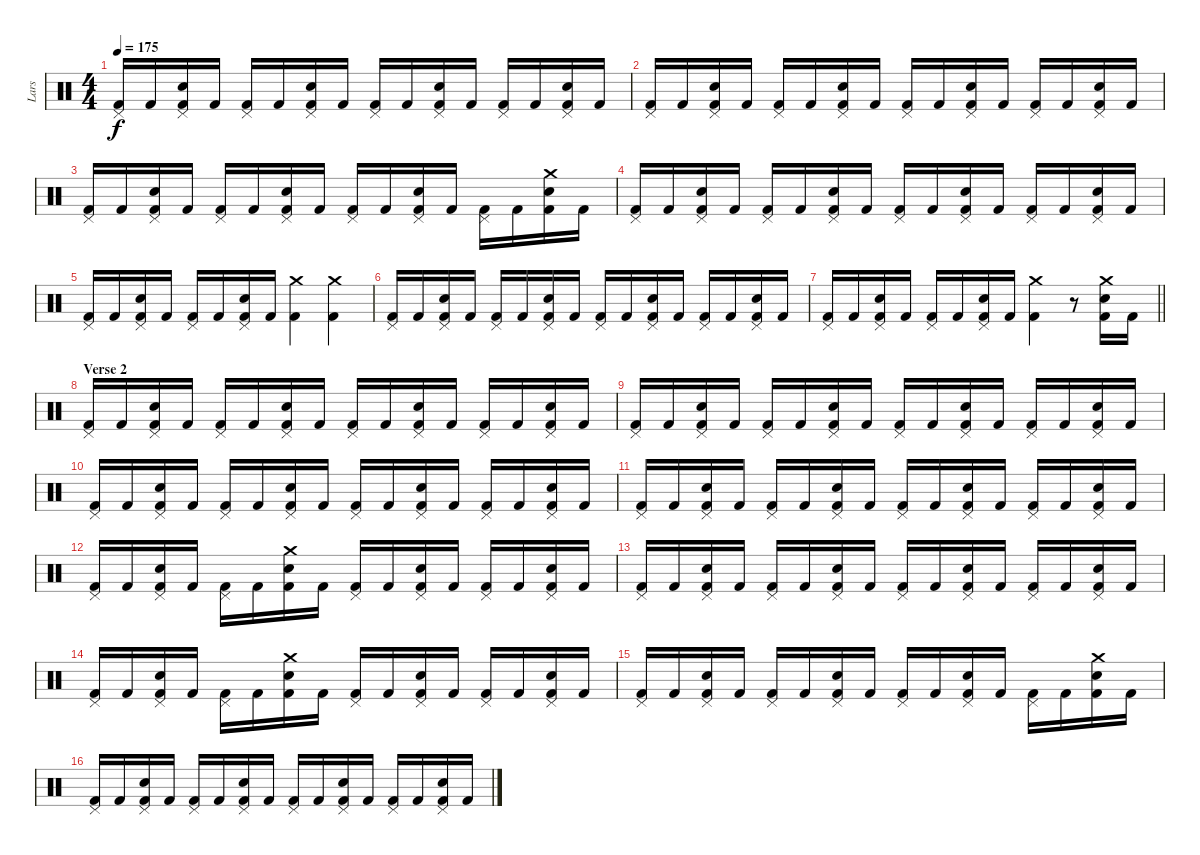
\track ("Lars" "Lars") {instrument percussion}
\staff {score}
\articulation defaults
\ts (4 4)
\tempo 175
\clef neutral
\ks c
("Pedal Hi-Hat (hit)" "Kick (hit) 2").16{dy f} "Kick (hit) 2".16 ("Pedal Hi-Hat (hit)" "Electric Snare (hit)" "Kick (hit) 2").16 "Kick (hit) 2".16 ("Pedal Hi-Hat (hit)" "Kick (hit) 2").16 "Kick (hit) 2".16 ("Pedal Hi-Hat (hit)" "Electric Snare (hit)" "Kick (hit) 2").16 "Kick (hit) 2".16 ("Pedal Hi-Hat (hit)" "Kick (hit) 2").16 "Kick (hit) 2".16 ("Pedal Hi-Hat (hit)" "Electric Snare (hit)" "Kick (hit) 2").16 "Kick (hit) 2".16 ("Pedal Hi-Hat (hit)" "Kick (hit) 2").16 "Kick (hit) 2".16 ("Pedal Hi-Hat (hit)" "Electric Snare (hit)" "Kick (hit) 2").16 "Kick (hit) 2".16 |
("Pedal Hi-Hat (hit)" "Kick (hit) 2").16 "Kick (hit) 2".16 ("Pedal Hi-Hat (hit)" "Electric Snare (hit)" "Kick (hit) 2").16 "Kick (hit) 2".16 ("Pedal Hi-Hat (hit)" "Kick (hit) 2").16 "Kick (hit) 2".16 ("Pedal Hi-Hat (hit)" "Electric Snare (hit)" "Kick (hit) 2").16 "Kick (hit) 2".16 ("Pedal Hi-Hat (hit)" "Kick (hit) 2").16 "Kick (hit) 2".16 ("Pedal Hi-Hat (hit)" "Electric Snare (hit)" "Kick (hit) 2").16 "Kick (hit) 2".16 ("Pedal Hi-Hat (hit)" "Kick (hit) 2").16 "Kick (hit) 2".16 ("Pedal Hi-Hat (hit)" "Electric Snare (hit)" "Kick (hit) 2").16 "Kick (hit) 2".16 |
("Pedal Hi-Hat (hit)" "Kick (hit) 2").16 "Kick (hit) 2".16 ("Pedal Hi-Hat (hit)" "Electric Snare (hit)" "Kick (hit) 2").16 "Kick (hit) 2".16 ("Pedal Hi-Hat (hit)" "Kick (hit) 2").16 "Kick (hit) 2".16 ("Pedal Hi-Hat (hit)" "Electric Snare (hit)" "Kick (hit) 2").16 "Kick (hit) 2".16 ("Pedal Hi-Hat (hit)" "Kick (hit) 2").16 "Kick (hit) 2".16 ("Pedal Hi-Hat (hit)" "Electric Snare (hit)" "Kick (hit) 2").16 "Kick (hit) 2".16 ("Pedal Hi-Hat (hit)" "Kick (hit) 2").16 "Kick (hit) 2".16 ("Crash medium (hit)" "Electric Snare (hit)" "Kick (hit) 2").16 "Kick (hit) 2".16 |
("Pedal Hi-Hat (hit)" "Kick (hit) 2").16 "Kick (hit) 2".16 ("Pedal Hi-Hat (hit)" "Electric Snare (hit)" "Kick (hit) 2").16 "Kick (hit) 2".16 ("Pedal Hi-Hat (hit)" "Kick (hit) 2").16 "Kick (hit) 2".16 ("Pedal Hi-Hat (hit)" "Electric Snare (hit)" "Kick (hit) 2").16 "Kick (hit) 2".16 ("Pedal Hi-Hat (hit)" "Kick (hit) 2").16 "Kick (hit) 2".16 ("Pedal Hi-Hat (hit)" "Electric Snare (hit)" "Kick (hit) 2").16 "Kick (hit) 2".16 ("Pedal Hi-Hat (hit)" "Kick (hit) 2").16 "Kick (hit) 2".16 ("Pedal Hi-Hat (hit)" "Electric Snare (hit)" "Kick (hit) 2").16 "Kick (hit) 2".16 |
("Pedal Hi-Hat (hit)" "Kick (hit) 2").16 "Kick (hit) 2".16 ("Pedal Hi-Hat (hit)" "Electric Snare (hit)" "Kick (hit) 2").16 "Kick (hit) 2".16 ("Pedal Hi-Hat (hit)" "Kick (hit) 2").16 "Kick (hit) 2".16 ("Pedal Hi-Hat (hit)" "Electric Snare (hit)" "Kick (hit) 2").16 "Kick (hit) 2".16 ("Crash medium (hit)" "Kick (hit) 2").4 ("Crash medium (hit)" "Kick (hit) 2").4 |
("Pedal Hi-Hat (hit)" "Kick (hit) 2").16 "Kick (hit) 2".16 ("Pedal Hi-Hat (hit)" "Electric Snare (hit)" "Kick (hit) 2").16 "Kick (hit) 2".16 ("Pedal Hi-Hat (hit)" "Kick (hit) 2").16 "Kick (hit) 2".16 ("Pedal Hi-Hat (hit)" "Electric Snare (hit)" "Kick (hit) 2").16 "Kick (hit) 2".16 ("Pedal Hi-Hat (hit)" "Kick (hit) 2").16 "Kick (hit) 2".16 ("Pedal Hi-Hat (hit)" "Electric Snare (hit)" "Kick (hit) 2").16 "Kick (hit) 2".16 ("Pedal Hi-Hat (hit)" "Kick (hit) 2").16 "Kick (hit) 2".16 ("Pedal Hi-Hat (hit)" "Electric Snare (hit)" "Kick (hit) 2").16 "Kick (hit) 2".16 |
\barLineRight lightlight
("Pedal Hi-Hat (hit)" "Kick (hit) 2").16 "Kick (hit) 2".16 ("Pedal Hi-Hat (hit)" "Electric Snare (hit)" "Kick (hit) 2").16 "Kick (hit) 2".16 ("Pedal Hi-Hat (hit)" "Kick (hit) 2").16 "Kick (hit) 2".16 ("Pedal Hi-Hat (hit)" "Electric Snare (hit)" "Kick (hit) 2").16 "Kick (hit) 2".16 ("Crash medium (hit)" "Kick (hit) 2").4 r.8 ("Crash medium (hit)" "Electric Snare (hit)" "Kick (hit) 2").16 "Kick (hit) 2".16 |
\section ("" "Verse 2")
("Pedal Hi-Hat (hit)" "Kick (hit) 2").16 "Kick (hit) 2".16 ("Pedal Hi-Hat (hit)" "Electric Snare (hit)" "Kick (hit) 2").16 "Kick (hit) 2".16 ("Pedal Hi-Hat (hit)" "Kick (hit) 2").16 "Kick (hit) 2".16 ("Pedal Hi-Hat (hit)" "Electric Snare (hit)" "Kick (hit) 2").16 "Kick (hit) 2".16 ("Pedal Hi-Hat (hit)" "Kick (hit) 2").16 "Kick (hit) 2".16 ("Pedal Hi-Hat (hit)" "Electric Snare (hit)" "Kick (hit) 2").16 "Kick (hit) 2".16 ("Pedal Hi-Hat (hit)" "Kick (hit) 2").16 "Kick (hit) 2".16 ("Pedal Hi-Hat (hit)" "Electric Snare (hit)" "Kick (hit) 2").16 "Kick (hit) 2".16 |
("Pedal Hi-Hat (hit)" "Kick (hit) 2").16 "Kick (hit) 2".16 ("Pedal Hi-Hat (hit)" "Electric Snare (hit)" "Kick (hit) 2").16 "Kick (hit) 2".16 ("Pedal Hi-Hat (hit)" "Kick (hit) 2").16 "Kick (hit) 2".16 ("Pedal Hi-Hat (hit)" "Electric Snare (hit)" "Kick (hit) 2").16 "Kick (hit) 2".16 ("Pedal Hi-Hat (hit)" "Kick (hit) 2").16 "Kick (hit) 2".16 ("Pedal Hi-Hat (hit)" "Electric Snare (hit)" "Kick (hit) 2").16 "Kick (hit) 2".16 ("Pedal Hi-Hat (hit)" "Kick (hit) 2").16 "Kick (hit) 2".16 ("Pedal Hi-Hat (hit)" "Electric Snare (hit)" "Kick (hit) 2").16 "Kick (hit) 2".16 |
("Pedal Hi-Hat (hit)" "Kick (hit) 2").16 "Kick (hit) 2".16 ("Pedal Hi-Hat (hit)" "Electric Snare (hit)" "Kick (hit) 2").16 "Kick (hit) 2".16 ("Pedal Hi-Hat (hit)" "Kick (hit) 2").16 "Kick (hit) 2".16 ("Pedal Hi-Hat (hit)" "Electric Snare (hit)" "Kick (hit) 2").16 "Kick (hit) 2".16 ("Pedal Hi-Hat (hit)" "Kick (hit) 2").16 "Kick (hit) 2".16 ("Pedal Hi-Hat (hit)" "Electric Snare (hit)" "Kick (hit) 2").16 "Kick (hit) 2".16 ("Pedal Hi-Hat (hit)" "Kick (hit) 2").16 "Kick (hit) 2".16 ("Pedal Hi-Hat (hit)" "Electric Snare (hit)" "Kick (hit) 2").16 "Kick (hit) 2".16 |
("Pedal Hi-Hat (hit)" "Kick (hit) 2").16 "Kick (hit) 2".16 ("Pedal Hi-Hat (hit)" "Electric Snare (hit)" "Kick (hit) 2").16 "Kick (hit) 2".16 ("Pedal Hi-Hat (hit)" "Kick (hit) 2").16 "Kick (hit) 2".16 ("Pedal Hi-Hat (hit)" "Electric Snare (hit)" "Kick (hit) 2").16 "Kick (hit) 2".16 ("Pedal Hi-Hat (hit)" "Kick (hit) 2").16 "Kick (hit) 2".16 ("Pedal Hi-Hat (hit)" "Electric Snare (hit)" "Kick (hit) 2").16 "Kick (hit) 2".16 ("Pedal Hi-Hat (hit)" "Kick (hit) 2").16 "Kick (hit) 2".16 ("Pedal Hi-Hat (hit)" "Electric Snare (hit)" "Kick (hit) 2").16 "Kick (hit) 2".16 |
("Pedal Hi-Hat (hit)" "Kick (hit) 2").16 "Kick (hit) 2".16 ("Pedal Hi-Hat (hit)" "Electric Snare (hit)" "Kick (hit) 2").16 "Kick (hit) 2".16 ("Pedal Hi-Hat (hit)" "Kick (hit) 2").16 "Kick (hit) 2".16 ("Crash medium (hit)" "Electric Snare (hit)" "Kick (hit) 2").16 "Kick (hit) 2".16 ("Pedal Hi-Hat (hit)" "Kick (hit) 2").16 "Kick (hit) 2".16 ("Pedal Hi-Hat (hit)" "Electric Snare (hit)" "Kick (hit) 2").16 "Kick (hit) 2".16 ("Pedal Hi-Hat (hit)" "Kick (hit) 2").16 "Kick (hit) 2".16 ("Pedal Hi-Hat (hit)" "Electric Snare (hit)" "Kick (hit) 2").16 "Kick (hit) 2".16 |
("Pedal Hi-Hat (hit)" "Kick (hit) 2").16 "Kick (hit) 2".16 ("Pedal Hi-Hat (hit)" "Electric Snare (hit)" "Kick (hit) 2").16 "Kick (hit) 2".16 ("Pedal Hi-Hat (hit)" "Kick (hit) 2").16 "Kick (hit) 2".16 ("Pedal Hi-Hat (hit)" "Electric Snare (hit)" "Kick (hit) 2").16 "Kick (hit) 2".16 ("Pedal Hi-Hat (hit)" "Kick (hit) 2").16 "Kick (hit) 2".16 ("Pedal Hi-Hat (hit)" "Electric Snare (hit)" "Kick (hit) 2").16 "Kick (hit) 2".16 ("Pedal Hi-Hat (hit)" "Kick (hit) 2").16 "Kick (hit) 2".16 ("Pedal Hi-Hat (hit)" "Electric Snare (hit)" "Kick (hit) 2").16 "Kick (hit) 2".16 |
("Pedal Hi-Hat (hit)" "Kick (hit) 2").16 "Kick (hit) 2".16 ("Pedal Hi-Hat (hit)" "Electric Snare (hit)" "Kick (hit) 2").16 "Kick (hit) 2".16 ("Pedal Hi-Hat (hit)" "Kick (hit) 2").16 "Kick (hit) 2".16 ("Crash medium (hit)" "Electric Snare (hit)" "Kick (hit) 2").16 "Kick (hit) 2".16 ("Pedal Hi-Hat (hit)" "Kick (hit) 2").16 "Kick (hit) 2".16 ("Pedal Hi-Hat (hit)" "Electric Snare (hit)" "Kick (hit) 2").16 "Kick (hit) 2".16 ("Pedal Hi-Hat (hit)" "Kick (hit) 2").16 "Kick (hit) 2".16 ("Pedal Hi-Hat (hit)" "Electric Snare (hit)" "Kick (hit) 2").16 "Kick (hit) 2".16 |
("Pedal Hi-Hat (hit)" "Kick (hit) 2").16 "Kick (hit) 2".16 ("Pedal Hi-Hat (hit)" "Electric Snare (hit)" "Kick (hit) 2").16 "Kick (hit) 2".16 ("Pedal Hi-Hat (hit)" "Kick (hit) 2").16 "Kick (hit) 2".16 ("Pedal Hi-Hat (hit)" "Electric Snare (hit)" "Kick (hit) 2").16 "Kick (hit) 2".16 ("Pedal Hi-Hat (hit)" "Kick (hit) 2").16 "Kick (hit) 2".16 ("Pedal Hi-Hat (hit)" "Electric Snare (hit)" "Kick (hit) 2").16 "Kick (hit) 2".16 ("Pedal Hi-Hat (hit)" "Kick (hit) 2").16 "Kick (hit) 2".16 ("Crash medium (hit)" "Electric Snare (hit)" "Kick (hit) 2").16 "Kick (hit) 2".16 |
("Pedal Hi-Hat (hit)" "Kick (hit) 2").16 "Kick (hit) 2".16 ("Pedal Hi-Hat (hit)" "Electric Snare (hit)" "Kick (hit) 2").16 "Kick (hit) 2".16 ("Pedal Hi-Hat (hit)" "Kick (hit) 2").16 "Kick (hit) 2".16 ("Pedal Hi-Hat (hit)" "Electric Snare (hit)" "Kick (hit) 2").16 "Kick (hit) 2".16 ("Pedal Hi-Hat (hit)" "Kick (hit) 2").16 "Kick (hit) 2".16 ("Pedal Hi-Hat (hit)" "Electric Snare (hit)" "Kick (hit) 2").16 "Kick (hit) 2".16 ("Pedal Hi-Hat (hit)" "Kick (hit) 2").16 "Kick (hit) 2".16 ("Pedal Hi-Hat (hit)" "Electric Snare (hit)" "Kick (hit) 2").16 "Kick (hit) 2".16
